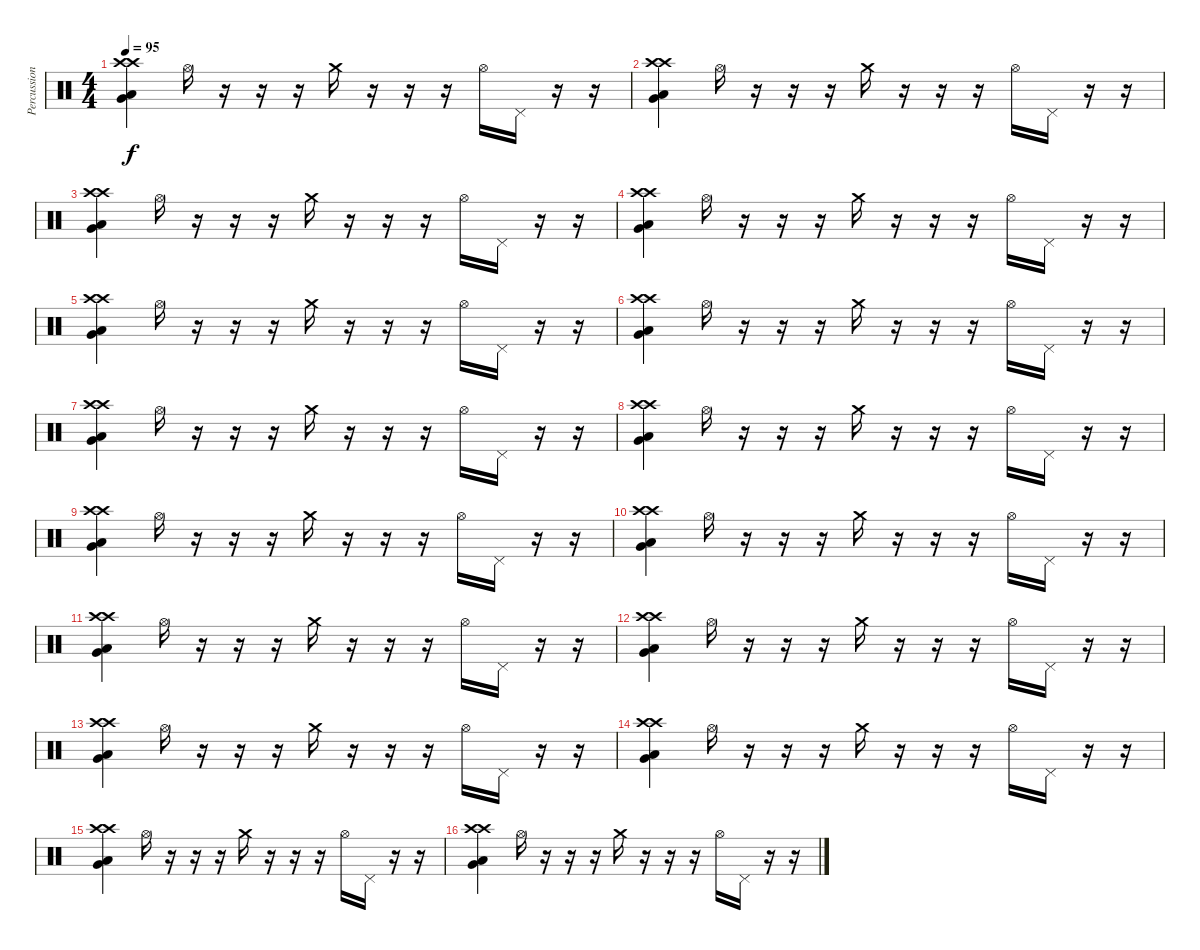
\track ("Percussion" "Percussion") {instrument percussion}
\staff {score}
\articulation defaults
\ts (4 4)
\tempo 95
\clef neutral
\ks c
("Crash high (hit)" "Crash high (hit)" "Very Low Tom (hit)" "Low Floor Tom (hit)").4{dy f} "Hi-Hat (open)".16 r.16 r.16 r.16 "Crash medium (hit)".16 r.16 r.16 r.16 "Hi-Hat (open)".16 "Pedal Hi-Hat (hit)".16 r.16 r.16 |
("Crash high (hit)" "Crash high (hit)" "Very Low Tom (hit)" "Low Floor Tom (hit)").4 "Hi-Hat (open)".16 r.16 r.16 r.16 "Crash medium (hit)".16 r.16 r.16 r.16 "Hi-Hat (open)".16 "Pedal Hi-Hat (hit)".16 r.16 r.16 |
("Crash high (hit)" "Crash high (hit)" "Very Low Tom (hit)" "Low Floor Tom (hit)").4 "Hi-Hat (open)".16 r.16 r.16 r.16 "Crash medium (hit)".16 r.16 r.16 r.16 "Hi-Hat (open)".16 "Pedal Hi-Hat (hit)".16 r.16 r.16 |
("Crash high (hit)" "Crash high (hit)" "Very Low Tom (hit)" "Low Floor Tom (hit)").4 "Hi-Hat (open)".16 r.16 r.16 r.16 "Crash medium (hit)".16 r.16 r.16 r.16 "Hi-Hat (open)".16 "Pedal Hi-Hat (hit)".16 r.16 r.16 |
("Crash high (hit)" "Crash high (hit)" "Very Low Tom (hit)" "Low Floor Tom (hit)").4 "Hi-Hat (open)".16 r.16 r.16 r.16 "Crash medium (hit)".16 r.16 r.16 r.16 "Hi-Hat (open)".16 "Pedal Hi-Hat (hit)".16 r.16 r.16 |
("Crash high (hit)" "Crash high (hit)" "Very Low Tom (hit)" "Low Floor Tom (hit)").4 "Hi-Hat (open)".16 r.16 r.16 r.16 "Crash medium (hit)".16 r.16 r.16 r.16 "Hi-Hat (open)".16 "Pedal Hi-Hat (hit)".16 r.16 r.16 |
("Crash high (hit)" "Crash high (hit)" "Very Low Tom (hit)" "Low Floor Tom (hit)").4 "Hi-Hat (open)".16 r.16 r.16 r.16 "Crash medium (hit)".16 r.16 r.16 r.16 "Hi-Hat (open)".16 "Pedal Hi-Hat (hit)".16 r.16 r.16 |
("Crash high (hit)" "Crash high (hit)" "Very Low Tom (hit)" "Low Floor Tom (hit)").4 "Hi-Hat (open)".16 r.16 r.16 r.16 "Crash medium (hit)".16 r.16 r.16 r.16 "Hi-Hat (open)".16 "Pedal Hi-Hat (hit)".16 r.16 r.16 |
("Crash high (hit)" "Crash high (hit)" "Very Low Tom (hit)" "Low Floor Tom (hit)").4 "Hi-Hat (open)".16 r.16 r.16 r.16 "Crash medium (hit)".16 r.16 r.16 r.16 "Hi-Hat (open)".16 "Pedal Hi-Hat (hit)".16 r.16 r.16 |
("Crash high (hit)" "Crash high (hit)" "Very Low Tom (hit)" "Low Floor Tom (hit)").4 "Hi-Hat (open)".16 r.16 r.16 r.16 "Crash medium (hit)".16 r.16 r.16 r.16 "Hi-Hat (open)".16 "Pedal Hi-Hat (hit)".16 r.16 r.16 |
("Crash high (hit)" "Crash high (hit)" "Very Low Tom (hit)" "Low Floor Tom (hit)").4 "Hi-Hat (open)".16 r.16 r.16 r.16 "Crash medium (hit)".16 r.16 r.16 r.16 "Hi-Hat (open)".16 "Pedal Hi-Hat (hit)".16 r.16 r.16 |
("Crash high (hit)" "Crash high (hit)" "Very Low Tom (hit)" "Low Floor Tom (hit)").4 "Hi-Hat (open)".16 r.16 r.16 r.16 "Crash medium (hit)".16 r.16 r.16 r.16 "Hi-Hat (open)".16 "Pedal Hi-Hat (hit)".16 r.16 r.16 |
("Crash high (hit)" "Crash high (hit)" "Very Low Tom (hit)" "Low Floor Tom (hit)").4 "Hi-Hat (open)".16 r.16 r.16 r.16 "Crash medium (hit)".16 r.16 r.16 r.16 "Hi-Hat (open)".16 "Pedal Hi-Hat (hit)".16 r.16 r.16 |
("Crash high (hit)" "Crash high (hit)" "Very Low Tom (hit)" "Low Floor Tom (hit)").4 "Hi-Hat (open)".16 r.16 r.16 r.16 "Crash medium (hit)".16 r.16 r.16 r.16 "Hi-Hat (open)".16 "Pedal Hi-Hat (hit)".16 r.16 r.16 |
("Crash high (hit)" "Crash high (hit)" "Very Low Tom (hit)" "Low Floor Tom (hit)").4 "Hi-Hat (open)".16 r.16 r.16 r.16 "Crash medium (hit)".16 r.16 r.16 r.16 "Hi-Hat (open)".16 "Pedal Hi-Hat (hit)".16 r.16 r.16 |
("Crash high (hit)" "Crash high (hit)" "Very Low Tom (hit)" "Low Floor Tom (hit)").4 "Hi-Hat (open)".16 r.16 r.16 r.16 "Crash medium (hit)".16 r.16 r.16 r.16 "Hi-Hat (open)".16 "Pedal Hi-Hat (hit)".16 r.16 r.16
